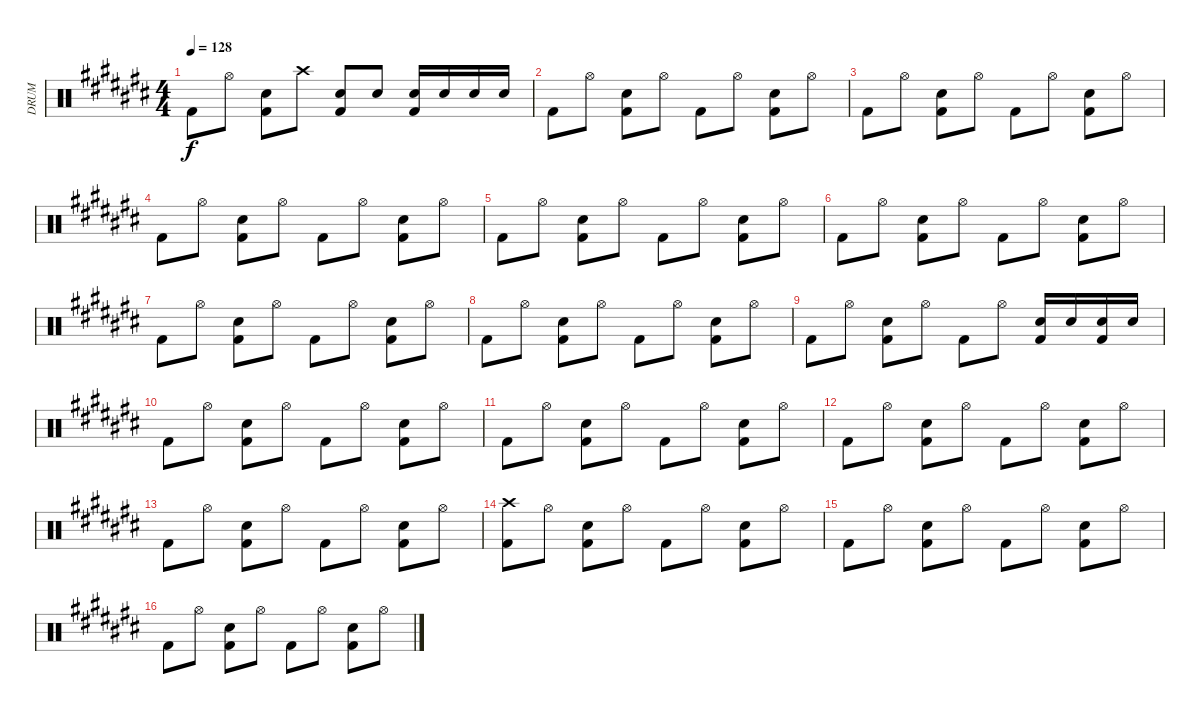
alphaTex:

\track ("DRUM" "DRUM") {instrument percussion}
\staff {score}
\articulation defaults
\ts (4 4)
\tempo 128
\clef neutral
\ks c# "Kick (hit) 2".8{dy f} "Hi-Hat (open)".8
("Electric Snare (hit)" "Kick (hit) 2").8 "Crash high (hit)".8 ("Electric Snare (hit)" "Kick (hit) 2").8 "Electric Snare (hit)".8 ("Electric Snare (hit)" "Kick (hit) 2").16 "Electric Snare (hit)".16 "Electric Snare (hit)".16 "Electric Snare (hit)".16 |
"Kick (hit) 2".8 "Hi-Hat (open)".8 ("Electric Snare (hit)" "Kick (hit) 2").8 "Hi-Hat (open)".8 "Kick (hit) 2".8 "Hi-Hat (open)".8 ("Electric Snare (hit)" "Kick (hit) 2").8 "Hi-Hat (open)".8 |
"Kick (hit) 2".8 "Hi-Hat (open)".8 ("Electric Snare (hit)" "Kick (hit) 2").8 "Hi-Hat (open)".8 "Kick (hit) 2".8 "Hi-Hat (open)".8 ("Electric Snare (hit)" "Kick (hit) 2").8 "Hi-Hat (open)".8 |
"Kick (hit) 2".8 "Hi-Hat (open)".8 ("Electric Snare (hit)" "Kick (hit) 2").8 "Hi-Hat (open)".8 "Kick (hit) 2".8 "Hi-Hat (open)".8 ("Electric Snare (hit)" "Kick (hit) 2").8 "Hi-Hat (open)".8 |
"Kick (hit) 2".8 "Hi-Hat (open)".8 ("Electric Snare (hit)" "Kick (hit) 2").8 "Hi-Hat (open)".8 "Kick (hit) 2".8 "Hi-Hat (open)".8 ("Electric Snare (hit)" "Kick (hit) 2").8 "Hi-Hat (open)".8 |
"Kick (hit) 2".8 "Hi-Hat (open)".8 ("Electric Snare (hit)" "Kick (hit) 2").8 "Hi-Hat (open)".8 "Kick (hit) 2".8 "Hi-Hat (open)".8 ("Electric Snare (hit)" "Kick (hit) 2").8 "Hi-Hat (open)".8 |
"Kick (hit) 2".8 "Hi-Hat (open)".8 ("Electric Snare (hit)" "Kick (hit) 2").8 "Hi-Hat (open)".8 "Kick (hit) 2".8 "Hi-Hat (open)".8 ("Electric Snare (hit)" "Kick (hit) 2").8 "Hi-Hat (open)".8 |
"Kick (hit) 2".8 "Hi-Hat (open)".8 ("Electric Snare (hit)" "Kick (hit) 2").8 "Hi-Hat (open)".8 "Kick (hit) 2".8 "Hi-Hat (open)".8 ("Electric Snare (hit)" "Kick (hit) 2").8 "Hi-Hat (open)".8 |
"Kick (hit) 2".8 "Hi-Hat (open)".8 ("Electric Snare (hit)" "Kick (hit) 2").8 "Hi-Hat (open)".8 "Kick (hit) 2".8 "Hi-Hat (open)".8 ("Electric Snare (hit)" "Kick (hit) 2").16 "Electric Snare (hit)".16 ("Electric Snare (hit)" "Kick (hit) 2").16 "Electric Snare (hit)".16 |
"Kick (hit) 2".8 "Hi-Hat (open)".8 ("Electric Snare (hit)" "Kick (hit) 2").8 "Hi-Hat (open)".8 "Kick (hit) 2".8 "Hi-Hat (open)".8 ("Electric Snare (hit)" "Kick (hit) 2").8 "Hi-Hat (open)".8 |
"Kick (hit) 2".8 "Hi-Hat (open)".8 ("Electric Snare (hit)" "Kick (hit) 2").8 "Hi-Hat (open)".8 "Kick (hit) 2".8 "Hi-Hat (open)".8 ("Electric Snare (hit)" "Kick (hit) 2").8 "Hi-Hat (open)".8 |
"Kick (hit) 2".8 "Hi-Hat (open)".8 ("Electric Snare (hit)" "Kick (hit) 2").8 "Hi-Hat (open)".8 "Kick (hit) 2".8 "Hi-Hat (open)".8 ("Electric Snare (hit)" "Kick (hit) 2").8 "Hi-Hat (open)".8 |
"Kick (hit) 2".8 "Hi-Hat (open)".8 ("Electric Snare (hit)" "Kick (hit) 2").8 "Hi-Hat (open)".8 "Kick (hit) 2".8 "Hi-Hat (open)".8 ("Electric Snare (hit)" "Kick (hit) 2").8 "Hi-Hat (open)".8 |
("Crash high (hit)" "Kick (hit) 2").8 "Hi-Hat (open)".8 ("Electric Snare (hit)" "Kick (hit) 2").8 "Hi-Hat (open)".8 "Kick (hit) 2".8 "Hi-Hat (open)".8 ("Electric Snare (hit)" "Kick (hit) 2").8 "Hi-Hat (open)".8 |
"Kick (hit) 2".8 "Hi-Hat (open)".8 ("Electric Snare (hit)" "Kick (hit) 2").8 "Hi-Hat (open)".8 "Kick (hit) 2".8 "Hi-Hat (open)".8 ("Electric Snare (hit)" "Kick (hit) 2").8 "Hi-Hat (open)".8 |
"Kick (hit) 2".8 "Hi-Hat (open)".8 ("Electric Snare (hit)" "Kick (hit) 2").8 "Hi-Hat (open)".8 "Kick (hit) 2".8 "Hi-Hat (open)".8 ("Electric Snare (hit)" "Kick (hit) 2").8 "Hi-Hat (open)".8
